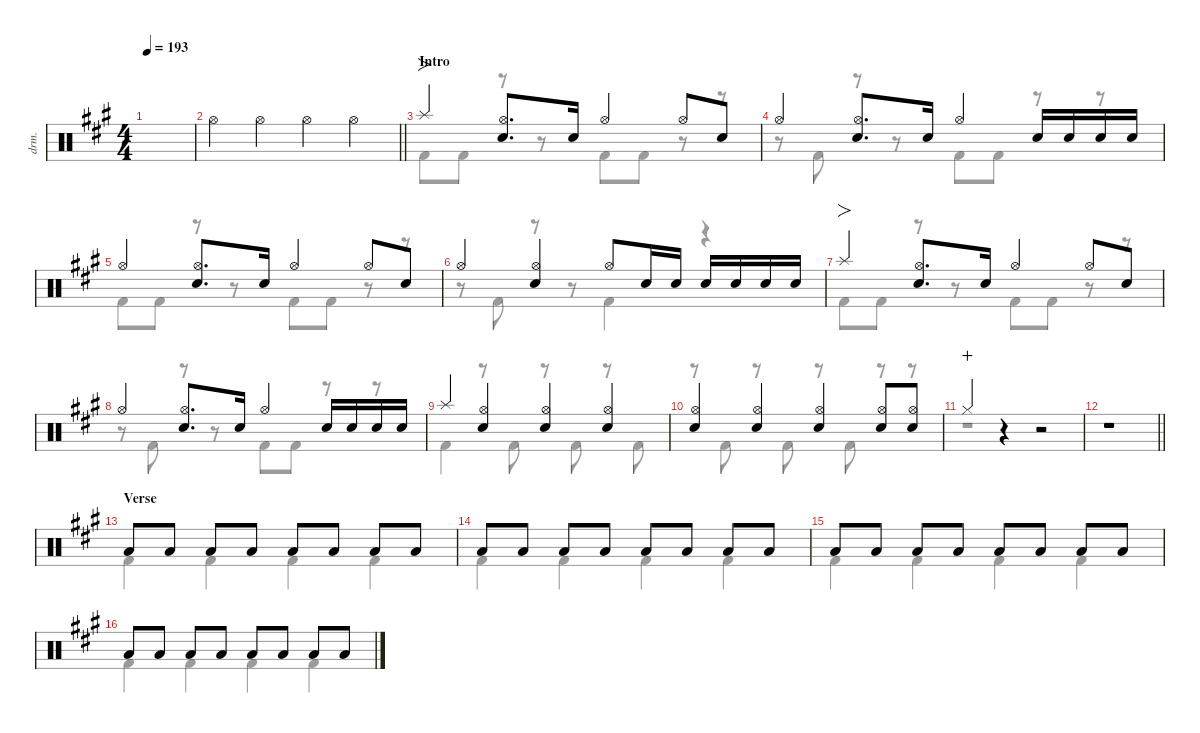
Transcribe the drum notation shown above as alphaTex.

\defaultSystemsLayout 4
\hideDynamics
\bracketExtendMode nobrackets
\otherSystemsTrackNameOrientation horizontal
\track ("伊地知虹夏" "drm.") {instrument percussion}
\staff {score}
\articulation defaults
\voice
\ts (4 4)
\tempo 193
\clef neutral
\ks a
|
\barLineRight lightlight "Hi-Hat (open)"{acc forcenatural}.4{beam Down} "Hi-Hat (open)"{acc forcenatural}.4{beam Down} "Hi-Hat (open)"{acc forcenatural}.4{beam Down} "Hi-Hat (open)"{acc forcenatural}.4{beam Down}
|
\section ("" "Intro")
"Splash (hit)"{acc forcenatural}.4{fo beam Up} ("Snare (hit) 2"{acc forcenatural} "Hi-Hat (open)"{acc forcenatural}).8{d beam Up} "Snare (hit) 2"{acc forcenatural}.16{beam Up} "Hi-Hat (open)"{acc forcenatural}.4{beam Up} "Hi-Hat (open)"{acc forcenatural}.8{beam Up} "Snare (hit) 2"{acc forcenatural}.8{beam Up} |
"Hi-Hat (open)"{acc forcenatural}.4{beam Up} ("Hi-Hat (open)"{acc forcenatural} "Snare (hit) 2"{acc forcenatural}).8{d beam Up} "Snare (hit) 2"{acc forcenatural}.16{beam Up} "Hi-Hat (open)"{acc forcenatural}.4{beam Up} "Snare (hit) 2"{acc forcenatural}.16{beam Up} "Snare (hit) 2"{acc forcenatural}.16{beam Up} "Snare (hit) 2"{acc forcenatural}.16{beam Up} "Snare (hit) 2"{acc forcenatural}.16{beam Up} |
"Hi-Hat (open)"{acc forcenatural}.4{beam Up} ("Hi-Hat (open)"{acc forcenatural} "Snare (hit) 2"{acc forcenatural}).8{d beam Up} "Snare (hit) 2"{acc forcenatural}.16{beam Up} "Hi-Hat (open)"{acc forcenatural}.4{beam Up} "Hi-Hat (open)"{acc forcenatural}.8{beam Up} "Snare (hit) 2"{acc forcenatural}.8{beam Up} |
"Hi-Hat (open)"{acc forcenatural}.4{beam Up} ("Hi-Hat (open)"{acc forcenatural} "Snare (hit) 2"{acc forcenatural}).4{beam Up} "Hi-Hat (open)"{acc forcenatural}.8{beam Up} "Snare (hit) 2"{acc forcenatural}.16{beam Up} "Snare (hit) 2"{acc forcenatural}.16{beam Up} "Snare (hit) 2"{acc forcenatural}.16{beam Up} "Snare (hit) 2"{acc forcenatural}.16{beam Up} "Snare (hit) 2"{acc forcenatural}.16{beam Up} "Snare (hit) 2"{acc forcenatural}.16{beam Up} |
"Splash (hit)"{acc forcenatural}.4{fo beam Up} ("Snare (hit) 2"{acc forcenatural} "Hi-Hat (open)"{acc forcenatural}).8{d beam Up} "Snare (hit) 2"{acc forcenatural}.16{beam Up} "Hi-Hat (open)"{acc forcenatural}.4{beam Up} "Hi-Hat (open)"{acc forcenatural}.8{beam Up} "Snare (hit) 2"{acc forcenatural}.8{beam Up} |
"Hi-Hat (open)"{acc forcenatural}.4{beam Up} ("Hi-Hat (open)"{acc forcenatural} "Snare (hit) 2"{acc forcenatural}).8{d beam Up} "Snare (hit) 2"{acc forcenatural}.16{beam Up} "Hi-Hat (open)"{acc forcenatural}.4{beam Up} "Snare (hit) 2"{acc forcenatural}.16{beam Up} "Snare (hit) 2"{acc forcenatural}.16{beam Up} "Snare (hit) 2"{acc forcenatural}.16{beam Up} "Snare (hit) 2"{acc forcenatural}.16{beam Up} |
"Splash (hit)"{acc forcenatural}.4{beam Up} ("Hi-Hat (open)"{acc forcenatural} "Snare (hit) 2"{acc forcenatural}).4{beam Up} ("Hi-Hat (open)"{acc forcenatural} "Snare (hit) 2"{acc forcenatural}).4{beam Up} ("Hi-Hat (open)"{acc forcenatural} "Snare (hit) 2"{acc forcenatural}).4{beam Up} |
("Hi-Hat (open)"{acc forcenatural} "Snare (hit) 2"{acc forcenatural}).4{beam Up} ("Hi-Hat (open)"{acc forcenatural} "Snare (hit) 2"{acc forcenatural}).4{beam Up} ("Hi-Hat (open)"{acc forcenatural} "Snare (hit) 2"{acc forcenatural}).4{beam Up} ("Hi-Hat (open)"{acc forcenatural} "Snare (hit) 2"{acc forcenatural}).8{beam Up} ("Hi-Hat (open)"{acc forcenatural} "Snare (hit) 2"{acc forcenatural}).8{beam Up} |
"Hi-Hat (closed)"{acc forcenatural}.4{wahc beam Up} r.4{beam Up} r.2{beam Up} |
\barLineRight lightlight
r.1{beam Up} |
\section ("" "Verse")
"Low Tom (hit)"{acc forcenatural}.8{beam Up} "Low Tom (hit)"{acc forcenatural}.8{beam Up} "Low Tom (hit)"{acc forcenatural}.8{beam Up} "Low Tom (hit)"{acc forcenatural}.8{beam Up} "Low Tom (hit)"{acc forcenatural}.8{beam Up} "Low Tom (hit)"{acc forcenatural}.8{beam Up} "Low Tom (hit)"{acc forcenatural}.8{beam Up} "Low Tom (hit)"{acc forcenatural}.8{beam Up} |
"Low Tom (hit)"{acc forcenatural}.8{beam Up} "Low Tom (hit)"{acc forcenatural}.8{beam Up} "Low Tom (hit)"{acc forcenatural}.8{beam Up} "Low Tom (hit)"{acc forcenatural}.8{beam Up} "Low Tom (hit)"{acc forcenatural}.8{beam Up} "Low Tom (hit)"{acc forcenatural}.8{beam Up} "Low Tom (hit)"{acc forcenatural}.8{beam Up} "Low Tom (hit)"{acc forcenatural}.8{beam Up} |
"Low Tom (hit)"{acc forcenatural}.8{beam Up} "Low Tom (hit)"{acc forcenatural}.8{beam Up} "Low Tom (hit)"{acc forcenatural}.8{beam Up} "Low Tom (hit)"{acc forcenatural}.8{beam Up} "Low Tom (hit)"{acc forcenatural}.8{beam Up} "Low Tom (hit)"{acc forcenatural}.8{beam Up} "Low Tom (hit)"{acc forcenatural}.8{beam Up} "Low Tom (hit)"{acc forcenatural}.8{beam Up} |
"Low Tom (hit)"{acc forcenatural}.8{beam Up} "Low Tom (hit)"{acc forcenatural}.8{beam Up} "Low Tom (hit)"{acc forcenatural}.8{beam Up} "Low Tom (hit)"{acc forcenatural}.8{beam Up} "Low Tom (hit)"{acc forcenatural}.8{beam Up} "Low Tom (hit)"{acc forcenatural}.8{beam Up} "Low Tom (hit)"{acc forcenatural}.8{beam Up} "Low Tom (hit)"{acc forcenatural}.8{beam Up}
\voice
\clef neutral
\ottava regular
\simile none
\ks a
|
\barLineRight lightlight
|
"Kick (hit) 2"{acc forcenatural}.8{beam Down} "Kick (hit) 2"{acc forcenatural}.8{beam Down} r.8{beam Down} r.8{beam Down} "Kick (hit) 2"{acc forcenatural}.8{beam Down} "Kick (hit) 2"{acc forcenatural}.8{beam Down} r.8{beam Down} r.8{beam Down} |
r.8{beam Down} "Kick (hit) 2"{acc forcenatural}.8{beam Down} r.8{beam Down} r.8{beam Down} "Kick (hit) 2"{acc forcenatural}.8{beam Down} "Kick (hit) 2"{acc forcenatural}.8{beam Down} r.8{beam Down} r.8{beam Down} |
"Kick (hit) 2"{acc forcenatural}.8{beam Down} "Kick (hit) 2"{acc forcenatural}.8{beam Down} r.8{beam Down} r.8{beam Down} "Kick (hit) 2"{acc forcenatural}.8{beam Down} "Kick (hit) 2"{acc forcenatural}.8{beam Down} r.8{beam Down} r.8{beam Down} |
r.8{beam Down} "Kick (hit) 2"{acc forcenatural}.8{beam Down} r.8{beam Down} r.8{beam Down} "Kick (hit) 2"{acc forcenatural}.4{beam Down} r.4{beam Down} |
"Kick (hit) 2"{acc forcenatural}.8{beam Down} "Kick (hit) 2"{acc forcenatural}.8{beam Down} r.8{beam Down} r.8{beam Down} "Kick (hit) 2"{acc forcenatural}.8{beam Down} "Kick (hit) 2"{acc forcenatural}.8{beam Down} r.8{beam Down} r.8{beam Down} |
r.8{beam Down} "Kick (hit) 2"{acc forcenatural}.8{beam Down} r.8{beam Down} r.8{beam Down} "Kick (hit) 2"{acc forcenatural}.8{beam Down} "Kick (hit) 2"{acc forcenatural}.8{beam Down} r.8{beam Down} r.8{beam Down} |
"Kick (hit) 2"{acc forcenatural}.4{beam Down} r.8{beam Down} "Kick (hit) 2"{acc forcenatural}.8{beam Down} r.8{beam Down} "Kick (hit) 2"{acc forcenatural}.8{beam Down} r.8{beam Down} "Kick (hit) 2"{acc forcenatural}.8{beam Down} |
r.8{beam Down} "Kick (hit) 2"{acc forcenatural}.8{beam Down} r.8{beam Down} "Kick (hit) 2"{acc forcenatural}.8{beam Down} r.8{beam Down} "Kick (hit) 2"{acc forcenatural}.8{beam Down} r.8{beam Down} r.8{beam Down} |
r.1{beam Down} |
\barLineRight lightlight
r.1{beam Down} |
"Kick (hit) 2"{acc forcenatural}.4{beam Down} "Kick (hit) 2"{acc forcenatural}.4{beam Down} "Kick (hit) 2"{acc forcenatural}.4{beam Down} "Kick (hit) 2"{acc forcenatural}.4{beam Down} |
"Kick (hit) 2"{acc forcenatural}.4{beam Down} "Kick (hit) 2"{acc forcenatural}.4{beam Down} "Kick (hit) 2"{acc forcenatural}.4{beam Down} "Kick (hit) 2"{acc forcenatural}.4{beam Down} |
"Kick (hit) 2"{acc forcenatural}.4{beam Down} "Kick (hit) 2"{acc forcenatural}.4{beam Down} "Kick (hit) 2"{acc forcenatural}.4{beam Down} "Kick (hit) 2"{acc forcenatural}.4{beam Down} |
"Kick (hit) 2"{acc forcenatural}.4{beam Down} "Kick (hit) 2"{acc forcenatural}.4{beam Down} "Kick (hit) 2"{acc forcenatural}.4{beam Down} "Kick (hit) 2"{acc forcenatural}.4{beam Down}
